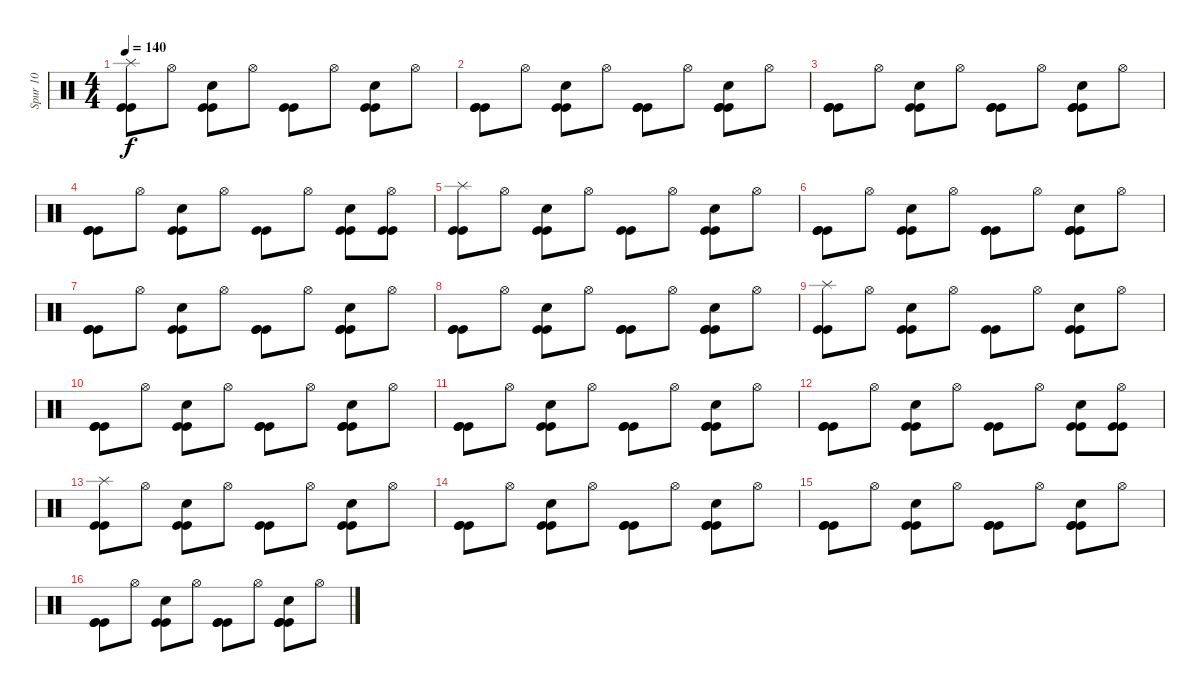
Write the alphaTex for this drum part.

\track ("Spur 10" "Spur 10") {instrument percussion}
\staff {score}
\articulation defaults
\ts (4 4)
\tempo 140
\clef neutral
\ks c
("Kick (hit)" "Kick (hit)" "Splash (hit)").8{dy f} "Hi-Hat (open)".8 ("Hand Clap (hit)" "Kick (hit)" "Kick (hit)").8 "Hi-Hat (open)".8 ("Kick (hit)" "Kick (hit)").8 "Hi-Hat (open)".8 ("Kick (hit)" "Kick (hit)" "Hand Clap (hit)").8 "Hi-Hat (open)".8 |
("Kick (hit)" "Kick (hit)" "Kick (hit)").8 "Hi-Hat (open)".8 ("Kick (hit)" "Kick (hit)" "Hand Clap (hit)").8 "Hi-Hat (open)".8 ("Kick (hit)" "Kick (hit)" "Kick (hit)").8 "Hi-Hat (open)".8 ("Kick (hit)" "Kick (hit)" "Hand Clap (hit)" "Kick (hit)").8 "Hi-Hat (open)".8 |
("Kick (hit)" "Kick (hit)" "Kick (hit)").8 "Hi-Hat (open)".8 ("Kick (hit)" "Hand Clap (hit)" "Kick (hit)").8 "Hi-Hat (open)".8 ("Kick (hit)" "Kick (hit)" "Kick (hit)").8 "Hi-Hat (open)".8 ("Kick (hit)" "Hand Clap (hit)" "Kick (hit)" "Kick (hit)").8 "Hi-Hat (open)".8 |
("Kick (hit)" "Kick (hit)" "Kick (hit)").8 "Hi-Hat (open)".8 ("Hand Clap (hit)" "Kick (hit)" "Kick (hit)").8 "Hi-Hat (open)".8 ("Kick (hit)" "Kick (hit)").8 "Hi-Hat (open)".8 ("Kick (hit)" "Hand Clap (hit)" "Kick (hit)").8 ("Hi-Hat (open)" "Kick (hit)" "Kick (hit)").8 |
("Kick (hit)" "Kick (hit)" "Splash (hit)").8 "Hi-Hat (open)".8 ("Kick (hit)" "Hand Clap (hit)" "Kick (hit)").8 "Hi-Hat (open)".8 ("Kick (hit)" "Kick (hit)").8 "Hi-Hat (open)".8 ("Kick (hit)" "Hand Clap (hit)" "Kick (hit)").8 "Hi-Hat (open)".8 |
("Kick (hit)" "Kick (hit)" "Kick (hit)").8 "Hi-Hat (open)".8 ("Kick (hit)" "Kick (hit)" "Hand Clap (hit)").8 "Hi-Hat (open)".8 ("Kick (hit)" "Kick (hit)" "Kick (hit)").8 "Hi-Hat (open)".8 ("Kick (hit)" "Kick (hit)" "Hand Clap (hit)" "Kick (hit)").8 "Hi-Hat (open)".8 |
("Kick (hit)" "Kick (hit)" "Kick (hit)").8 "Hi-Hat (open)".8 ("Kick (hit)" "Kick (hit)" "Hand Clap (hit)").8 "Hi-Hat (open)".8 ("Kick (hit)" "Kick (hit)" "Kick (hit)").8 "Hi-Hat (open)".8 ("Kick (hit)" "Kick (hit)" "Hand Clap (hit)" "Kick (hit)").8 "Hi-Hat (open)".8 |
("Kick (hit)" "Kick (hit)" "Kick (hit)").8 "Hi-Hat (open)".8 ("Kick (hit)" "Kick (hit)" "Hand Clap (hit)").8 "Hi-Hat (open)".8 ("Kick (hit)" "Kick (hit)" "Kick (hit)").8 "Hi-Hat (open)".8 ("Kick (hit)" "Kick (hit)" "Hand Clap (hit)" "Kick (hit)").8 "Hi-Hat (open)".8 |
("Kick (hit)" "Kick (hit)" "Splash (hit)").8 "Hi-Hat (open)".8 ("Hand Clap (hit)" "Kick (hit)" "Kick (hit)").8 "Hi-Hat (open)".8 ("Kick (hit)" "Kick (hit)").8 "Hi-Hat (open)".8 ("Kick (hit)" "Kick (hit)" "Hand Clap (hit)").8 "Hi-Hat (open)".8 |
("Kick (hit)" "Kick (hit)" "Kick (hit)").8 "Hi-Hat (open)".8 ("Kick (hit)" "Kick (hit)" "Hand Clap (hit)").8 "Hi-Hat (open)".8 ("Kick (hit)" "Kick (hit)" "Kick (hit)").8 "Hi-Hat (open)".8 ("Kick (hit)" "Kick (hit)" "Hand Clap (hit)" "Kick (hit)").8 "Hi-Hat (open)".8 |
("Kick (hit)" "Kick (hit)" "Kick (hit)").8 "Hi-Hat (open)".8 ("Kick (hit)" "Hand Clap (hit)" "Kick (hit)").8 "Hi-Hat (open)".8 ("Kick (hit)" "Kick (hit)" "Kick (hit)").8 "Hi-Hat (open)".8 ("Kick (hit)" "Hand Clap (hit)" "Kick (hit)" "Kick (hit)").8 "Hi-Hat (open)".8 |
("Kick (hit)" "Kick (hit)" "Kick (hit)").8 "Hi-Hat (open)".8 ("Hand Clap (hit)" "Kick (hit)" "Kick (hit)").8 "Hi-Hat (open)".8 ("Kick (hit)" "Kick (hit)").8 "Hi-Hat (open)".8 ("Kick (hit)" "Hand Clap (hit)" "Kick (hit)").8 ("Hi-Hat (open)" "Kick (hit)" "Kick (hit)").8 |
("Kick (hit)" "Kick (hit)" "Splash (hit)").8 "Hi-Hat (open)".8 ("Kick (hit)" "Hand Clap (hit)" "Kick (hit)").8 "Hi-Hat (open)".8 ("Kick (hit)" "Kick (hit)").8 "Hi-Hat (open)".8 ("Kick (hit)" "Hand Clap (hit)" "Kick (hit)").8 "Hi-Hat (open)".8 |
("Kick (hit)" "Kick (hit)" "Kick (hit)").8 "Hi-Hat (open)".8 ("Kick (hit)" "Kick (hit)" "Hand Clap (hit)").8 "Hi-Hat (open)".8 ("Kick (hit)" "Kick (hit)" "Kick (hit)").8 "Hi-Hat (open)".8 ("Kick (hit)" "Kick (hit)" "Hand Clap (hit)" "Kick (hit)").8 "Hi-Hat (open)".8 |
("Kick (hit)" "Kick (hit)" "Kick (hit)").8 "Hi-Hat (open)".8 ("Kick (hit)" "Kick (hit)" "Hand Clap (hit)").8 "Hi-Hat (open)".8 ("Kick (hit)" "Kick (hit)" "Kick (hit)").8 "Hi-Hat (open)".8 ("Kick (hit)" "Kick (hit)" "Hand Clap (hit)" "Kick (hit)").8 "Hi-Hat (open)".8 |
("Kick (hit)" "Kick (hit)" "Kick (hit)").8 "Hi-Hat (open)".8 ("Kick (hit)" "Kick (hit)" "Hand Clap (hit)").8 "Hi-Hat (open)".8 ("Kick (hit)" "Kick (hit)" "Kick (hit)").8 "Hi-Hat (open)".8 ("Kick (hit)" "Kick (hit)" "Hand Clap (hit)" "Kick (hit)").8 "Hi-Hat (open)".8
